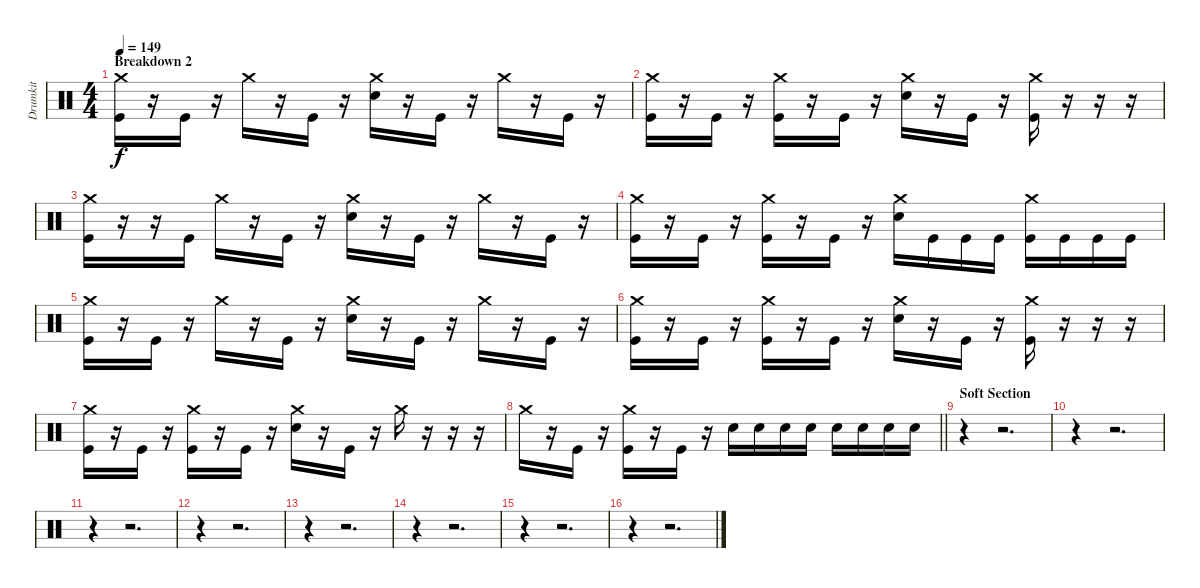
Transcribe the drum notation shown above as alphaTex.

\track ("Drumkit" "Drumkit") {instrument percussion}
\staff {score}
\articulation defaults
\ts (4 4)
\section ("" "Breakdown 2")
\tempo 149
\clef neutral
\ks c
("Crash medium (hit)" "Kick (hit)").16{dy f} r.16 "Kick (hit)".16 r.16 "Crash medium (hit)".16 r.16 "Kick (hit)".16 r.16 ("Crash medium (hit)" "Snare (hit) 2").16 r.16 "Kick (hit)".16 r.16 "Crash medium (hit)".16 r.16 "Kick (hit)".16 r.16 |
("Crash medium (hit)" "Kick (hit)").16 r.16 "Kick (hit)".16 r.16 ("Crash medium (hit)" "Kick (hit)").16 r.16 "Kick (hit)".16 r.16 ("Crash medium (hit)" "Snare (hit) 2").16 r.16 "Kick (hit)".16 r.16 ("Crash medium (hit)" "Kick (hit)").16 r.16 r.16 r.16 |
("Crash medium (hit)" "Kick (hit)").16 r.16 r.16 "Kick (hit)".16 "Crash medium (hit)".16 r.16 "Kick (hit)".16 r.16 ("Crash medium (hit)" "Snare (hit) 2").16 r.16 "Kick (hit)".16 r.16 "Crash medium (hit)".16 r.16 "Kick (hit)".16 r.16 |
("Crash medium (hit)" "Kick (hit)").16 r.16 "Kick (hit)".16 r.16 ("Crash medium (hit)" "Kick (hit)").16 r.16 "Kick (hit)".16 r.16 ("Crash medium (hit)" "Snare (hit) 2").16 "Kick (hit)".16 "Kick (hit)".16 "Kick (hit)".16 ("Crash medium (hit)" "Kick (hit)").16 "Kick (hit)".16 "Kick (hit)".16 "Kick (hit)".16 |
("Crash medium (hit)" "Kick (hit)").16 r.16 "Kick (hit)".16 r.16 "Crash medium (hit)".16 r.16 "Kick (hit)".16 r.16 ("Crash medium (hit)" "Snare (hit) 2").16 r.16 "Kick (hit)".16 r.16 "Crash medium (hit)".16 r.16 "Kick (hit)".16 r.16 |
("Crash medium (hit)" "Kick (hit)").16 r.16 "Kick (hit)".16 r.16 ("Crash medium (hit)" "Kick (hit)").16 r.16 "Kick (hit)".16 r.16 ("Crash medium (hit)" "Snare (hit) 2").16 r.16 "Kick (hit)".16 r.16 ("Crash medium (hit)" "Kick (hit)").16 r.16 r.16 r.16 |
("Crash medium (hit)" "Kick (hit)").16 r.16 "Kick (hit)".16 r.16 ("Crash medium (hit)" "Kick (hit)").16 r.16 "Kick (hit)".16 r.16 ("Crash medium (hit)" "Snare (hit) 2").16 r.16 "Kick (hit)".16 r.16 "Crash medium (hit)".16 r.16 r.16 r.16 |
\barLineRight lightlight "Crash medium (hit)".16
r.16 "Kick (hit)".16 r.16 ("Crash medium (hit)" "Kick (hit)").16 r.16 "Kick (hit)".16 r.16 "Snare (hit) 2".16 "Snare (hit) 2".16 "Snare (hit) 2".16 "Snare (hit) 2".16 "Snare (hit) 2".16 "Snare (hit) 2".16 "Snare (hit) 2".16 "Snare (hit) 2".16 |
\section ("" "Soft Section")
r.4 r.2{d} |
r.4 r.2{d} |
r.4 r.2{d} |
r.4 r.2{d} |
r.4 r.2{d} |
r.4 r.2{d} |
r.4 r.2{d} |
r.4 r.2{d}
